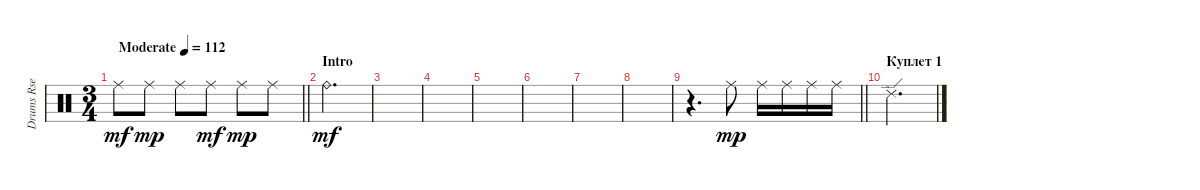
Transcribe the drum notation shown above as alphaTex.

\track ("Drums Rse" "Drums Rse") {instrument percussion}
\staff {score}
\articulation defaults
\ts (3 4)
\tempo (112 "Moderate")
\clef neutral
\barLineRight lightlight
\ks c "Ride (middle)".8{dy mf volume 7} "Ride (middle)".8{dy mp} "Ride (middle)".8 "Ride (middle)".8{dy mf} "Ride (middle)".8{dy mp} "Ride (middle)".8
|
\section ("" "Intro")
"Ride (bell)".2{d dy mf} |
|
|
|
|
|
|
\barLineRight lightlight
r.4{d} "Ride (middle)".8{dy mp} "Ride (middle)".16 "Ride (middle)".16 "Ride (middle)".16 "Ride (middle)".16 |
\section ("" "Куплет 1")
"Ride (edge) 2".2{d}
